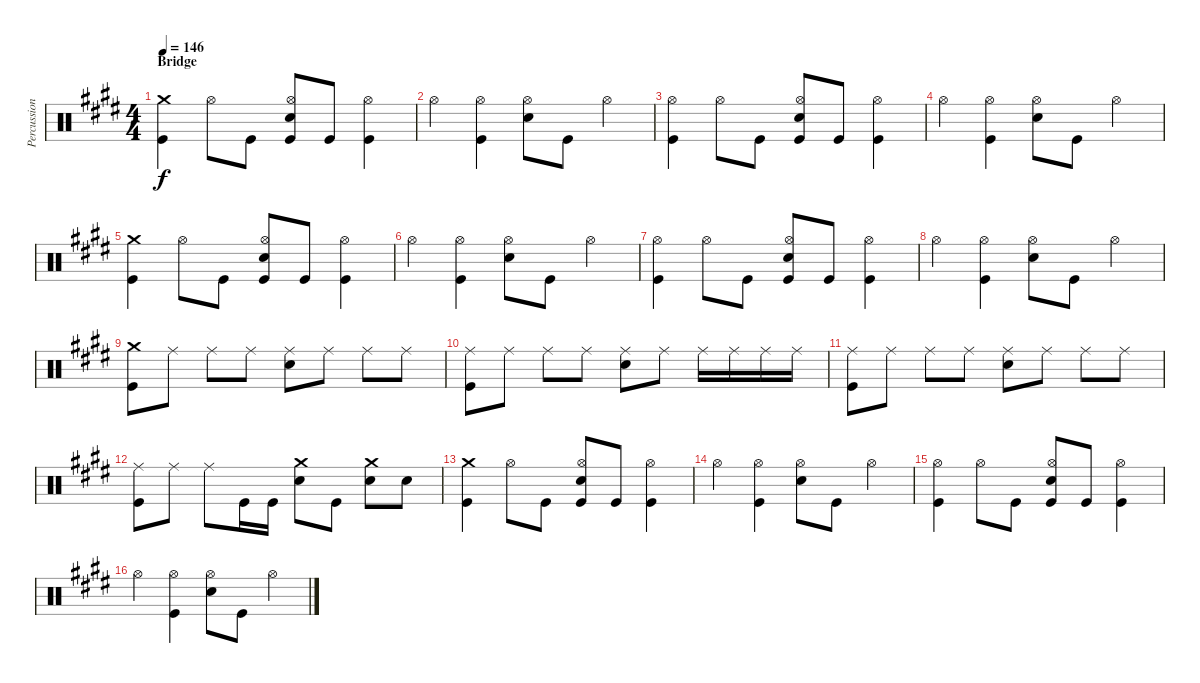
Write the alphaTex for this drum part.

\track ("Percussion" "Percussion") {instrument percussion}
\staff {score}
\articulation defaults
\ts (4 4)
\section ("" "Bridge")
\tempo 146
\clef neutral
\ks e
("Crash medium (hit)" "Kick (hit)").4{dy f} "Hi-Hat (open)".8 "Kick (hit)".8 ("Hi-Hat (open)" "Electric Snare (hit)" "Kick (hit)").8 "Kick (hit)".8 ("Hi-Hat (open)" "Kick (hit)").4 |
"Hi-Hat (open)".4 ("Hi-Hat (open)" "Kick (hit)").4 ("Hi-Hat (open)" "Electric Snare (hit)").8 "Kick (hit)".8 "Hi-Hat (open)".4 |
("Hi-Hat (open)" "Kick (hit)").4 "Hi-Hat (open)".8 "Kick (hit)".8 ("Hi-Hat (open)" "Electric Snare (hit)" "Kick (hit)").8 "Kick (hit)".8 ("Hi-Hat (open)" "Kick (hit)").4 |
"Hi-Hat (open)".4 ("Hi-Hat (open)" "Kick (hit)").4 ("Hi-Hat (open)" "Electric Snare (hit)").8 "Kick (hit)".8 "Hi-Hat (open)".4 |
("Crash medium (hit)" "Kick (hit)").4 "Hi-Hat (open)".8 "Kick (hit)".8 ("Hi-Hat (open)" "Electric Snare (hit)" "Kick (hit)").8 "Kick (hit)".8 ("Hi-Hat (open)" "Kick (hit)").4 |
"Hi-Hat (open)".4 ("Hi-Hat (open)" "Kick (hit)").4 ("Hi-Hat (open)" "Electric Snare (hit)").8 "Kick (hit)".8 "Hi-Hat (open)".4 |
("Hi-Hat (open)" "Kick (hit)").4 "Hi-Hat (open)".8 "Kick (hit)".8 ("Hi-Hat (open)" "Electric Snare (hit)" "Kick (hit)").8 "Kick (hit)".8 ("Hi-Hat (open)" "Kick (hit)").4 |
"Hi-Hat (open)".4 ("Hi-Hat (open)" "Kick (hit)").4 ("Hi-Hat (open)" "Electric Snare (hit)").8 "Kick (hit)".8 "Hi-Hat (open)".4 |
("Crash medium (hit)" "Kick (hit)").8 "Ride (middle)".8 "Ride (middle)".8 "Ride (middle)".8 ("Ride (middle)" "Electric Snare (hit)").8 "Ride (middle)".8 "Ride (middle)".8 "Ride (middle)".8 |
("Ride (middle)" "Kick (hit)").8 "Ride (middle)".8 "Ride (middle)".8 "Ride (middle)".8 ("Ride (middle)" "Electric Snare (hit)").8 "Ride (middle)".8 "Ride (middle)".16 "Ride (middle)".16 "Ride (middle)".16 "Ride (middle)".16 |
("Ride (middle)" "Kick (hit)").8 "Ride (middle)".8 "Ride (middle)".8 "Ride (middle)".8 ("Ride (middle)" "Electric Snare (hit)").8 "Ride (middle)".8 "Ride (middle)".8 "Ride (middle)".8 |
("Ride (middle)" "Kick (hit)").8 "Ride (middle)".8 "Ride (middle)".8 "Kick (hit)".16 "Kick (hit)".16 ("Crash medium (hit)" "Electric Snare (hit)").8 "Kick (hit)".8 ("Crash medium (hit)" "Electric Snare (hit)").8 "Electric Snare (hit)".8 |
("Crash medium (hit)" "Kick (hit)").4 "Hi-Hat (open)".8 "Kick (hit)".8 ("Hi-Hat (open)" "Electric Snare (hit)" "Kick (hit)").8 "Kick (hit)".8 ("Hi-Hat (open)" "Kick (hit)").4 |
"Hi-Hat (open)".4 ("Hi-Hat (open)" "Kick (hit)").4 ("Hi-Hat (open)" "Electric Snare (hit)").8 "Kick (hit)".8 "Hi-Hat (open)".4 |
("Hi-Hat (open)" "Kick (hit)").4 "Hi-Hat (open)".8 "Kick (hit)".8 ("Hi-Hat (open)" "Electric Snare (hit)" "Kick (hit)").8 "Kick (hit)".8 ("Hi-Hat (open)" "Kick (hit)").4 |
"Hi-Hat (open)".4 ("Hi-Hat (open)" "Kick (hit)").4 ("Hi-Hat (open)" "Electric Snare (hit)").8 "Kick (hit)".8 "Hi-Hat (open)".4
